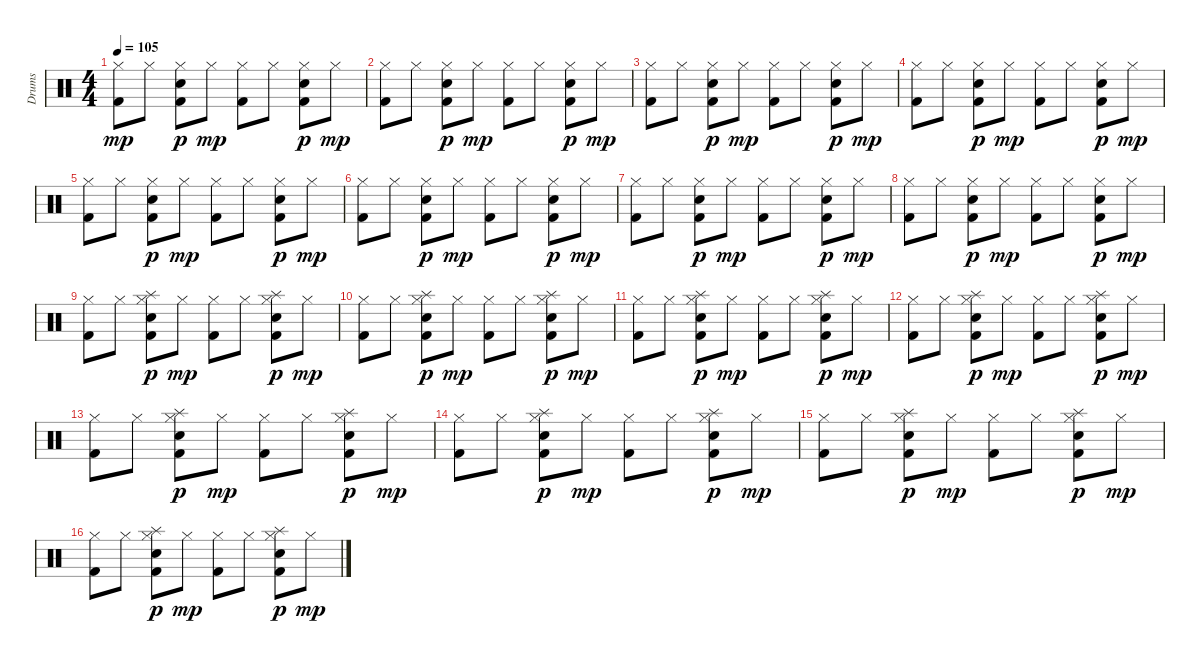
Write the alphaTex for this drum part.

\track ("Drums" "Drums") {instrument percussion}
\staff {score}
\articulation defaults
\ts (4 4)
\tempo 105
\clef neutral
\ks c
("Hi-Hat (closed)" "Kick (hit) 2").8{dy mp} "Hi-Hat (closed)".8 ("Hi-Hat (closed)" "Snare (hit) 2" "Kick (hit) 2").8{dy p} "Hi-Hat (closed)".8{dy mp} ("Hi-Hat (closed)" "Kick (hit) 2").8 "Hi-Hat (closed)".8 ("Hi-Hat (closed)" "Snare (hit) 2" "Kick (hit) 2").8{dy p} "Hi-Hat (closed)".8{dy mp} |
("Hi-Hat (closed)" "Kick (hit) 2").8 "Hi-Hat (closed)".8 ("Hi-Hat (closed)" "Snare (hit) 2" "Kick (hit) 2").8{dy p} "Hi-Hat (closed)".8{dy mp} ("Hi-Hat (closed)" "Kick (hit) 2").8 "Hi-Hat (closed)".8 ("Hi-Hat (closed)" "Snare (hit) 2" "Kick (hit) 2").8{dy p} "Hi-Hat (closed)".8{dy mp} |
("Hi-Hat (closed)" "Kick (hit) 2").8 "Hi-Hat (closed)".8 ("Hi-Hat (closed)" "Snare (hit) 2" "Kick (hit) 2").8{dy p} "Hi-Hat (closed)".8{dy mp} ("Hi-Hat (closed)" "Kick (hit) 2").8 "Hi-Hat (closed)".8 ("Hi-Hat (closed)" "Snare (hit) 2" "Kick (hit) 2").8{dy p} "Hi-Hat (closed)".8{dy mp} |
("Hi-Hat (closed)" "Kick (hit) 2").8 "Hi-Hat (closed)".8 ("Hi-Hat (closed)" "Snare (hit) 2" "Kick (hit) 2").8{dy p} "Hi-Hat (closed)".8{dy mp} ("Hi-Hat (closed)" "Kick (hit) 2").8 "Hi-Hat (closed)".8 ("Hi-Hat (closed)" "Snare (hit) 2" "Kick (hit) 2").8{dy p} "Hi-Hat (closed)".8{dy mp} |
("Hi-Hat (closed)" "Kick (hit) 2").8 "Hi-Hat (closed)".8 ("Hi-Hat (closed)" "Snare (hit) 2" "Kick (hit) 2").8{dy p} "Hi-Hat (closed)".8{dy mp} ("Hi-Hat (closed)" "Kick (hit) 2").8 "Hi-Hat (closed)".8 ("Hi-Hat (closed)" "Snare (hit) 2" "Kick (hit) 2").8{dy p} "Hi-Hat (closed)".8{dy mp} |
("Hi-Hat (closed)" "Kick (hit) 2").8 "Hi-Hat (closed)".8 ("Hi-Hat (closed)" "Snare (hit) 2" "Kick (hit) 2").8{dy p} "Hi-Hat (closed)".8{dy mp} ("Hi-Hat (closed)" "Kick (hit) 2").8 "Hi-Hat (closed)".8 ("Hi-Hat (closed)" "Snare (hit) 2" "Kick (hit) 2").8{dy p} "Hi-Hat (closed)".8{dy mp} |
("Hi-Hat (closed)" "Kick (hit) 2").8 "Hi-Hat (closed)".8 ("Hi-Hat (closed)" "Snare (hit) 2" "Kick (hit) 2").8{dy p} "Hi-Hat (closed)".8{dy mp} ("Hi-Hat (closed)" "Kick (hit) 2").8 "Hi-Hat (closed)".8 ("Hi-Hat (closed)" "Snare (hit) 2" "Kick (hit) 2").8{dy p} "Hi-Hat (closed)".8{dy mp} |
("Hi-Hat (closed)" "Kick (hit) 2").8 "Hi-Hat (closed)".8 ("Hi-Hat (closed)" "Snare (hit) 2" "Kick (hit) 2").8{dy p} "Hi-Hat (closed)".8{dy mp} ("Hi-Hat (closed)" "Kick (hit) 2").8 "Hi-Hat (closed)".8 ("Hi-Hat (closed)" "Snare (hit) 2" "Kick (hit) 2").8{dy p} "Hi-Hat (closed)".8{dy mp} |
("Hi-Hat (closed)" "Kick (hit) 2").8 "Hi-Hat (closed)".8 ("Splash (hit)" "Hi-Hat (closed)" "Snare (hit) 2" "Kick (hit) 2").8{dy p} "Hi-Hat (closed)".8{dy mp} ("Hi-Hat (closed)" "Kick (hit) 2").8 "Hi-Hat (closed)".8 ("Splash (hit)" "Hi-Hat (closed)" "Snare (hit) 2" "Kick (hit) 2").8{dy p} "Hi-Hat (closed)".8{dy mp} |
("Hi-Hat (closed)" "Kick (hit) 2").8 "Hi-Hat (closed)".8 ("Splash (hit)" "Hi-Hat (closed)" "Snare (hit) 2" "Kick (hit) 2").8{dy p} "Hi-Hat (closed)".8{dy mp} ("Hi-Hat (closed)" "Kick (hit) 2").8 "Hi-Hat (closed)".8 ("Splash (hit)" "Hi-Hat (closed)" "Snare (hit) 2" "Kick (hit) 2").8{dy p} "Hi-Hat (closed)".8{dy mp} |
("Hi-Hat (closed)" "Kick (hit) 2").8 "Hi-Hat (closed)".8 ("Splash (hit)" "Hi-Hat (closed)" "Snare (hit) 2" "Kick (hit) 2").8{dy p} "Hi-Hat (closed)".8{dy mp} ("Hi-Hat (closed)" "Kick (hit) 2").8 "Hi-Hat (closed)".8 ("Splash (hit)" "Hi-Hat (closed)" "Snare (hit) 2" "Kick (hit) 2").8{dy p} "Hi-Hat (closed)".8{dy mp} |
("Hi-Hat (closed)" "Kick (hit) 2").8 "Hi-Hat (closed)".8 ("Splash (hit)" "Hi-Hat (closed)" "Snare (hit) 2" "Kick (hit) 2").8{dy p} "Hi-Hat (closed)".8{dy mp} ("Hi-Hat (closed)" "Kick (hit) 2").8 "Hi-Hat (closed)".8 ("Splash (hit)" "Hi-Hat (closed)" "Snare (hit) 2" "Kick (hit) 2").8{dy p} "Hi-Hat (closed)".8{dy mp} |
("Hi-Hat (closed)" "Kick (hit) 2").8 "Hi-Hat (closed)".8 ("Splash (hit)" "Hi-Hat (closed)" "Snare (hit) 2" "Kick (hit) 2").8{dy p} "Hi-Hat (closed)".8{dy mp} ("Hi-Hat (closed)" "Kick (hit) 2").8 "Hi-Hat (closed)".8 ("Splash (hit)" "Hi-Hat (closed)" "Snare (hit) 2" "Kick (hit) 2").8{dy p} "Hi-Hat (closed)".8{dy mp} |
("Hi-Hat (closed)" "Kick (hit) 2").8 "Hi-Hat (closed)".8 ("Splash (hit)" "Hi-Hat (closed)" "Snare (hit) 2" "Kick (hit) 2").8{dy p} "Hi-Hat (closed)".8{dy mp} ("Hi-Hat (closed)" "Kick (hit) 2").8 "Hi-Hat (closed)".8 ("Splash (hit)" "Hi-Hat (closed)" "Snare (hit) 2" "Kick (hit) 2").8{dy p} "Hi-Hat (closed)".8{dy mp} |
("Hi-Hat (closed)" "Kick (hit) 2").8 "Hi-Hat (closed)".8 ("Splash (hit)" "Hi-Hat (closed)" "Snare (hit) 2" "Kick (hit) 2").8{dy p} "Hi-Hat (closed)".8{dy mp} ("Hi-Hat (closed)" "Kick (hit) 2").8 "Hi-Hat (closed)".8 ("Splash (hit)" "Hi-Hat (closed)" "Snare (hit) 2" "Kick (hit) 2").8{dy p} "Hi-Hat (closed)".8{dy mp} |
("Hi-Hat (closed)" "Kick (hit) 2").8 "Hi-Hat (closed)".8 ("Splash (hit)" "Hi-Hat (closed)" "Snare (hit) 2" "Kick (hit) 2").8{dy p} "Hi-Hat (closed)".8{dy mp} ("Hi-Hat (closed)" "Kick (hit) 2").8 "Hi-Hat (closed)".8 ("Splash (hit)" "Hi-Hat (closed)" "Snare (hit) 2" "Kick (hit) 2").8{dy p} "Hi-Hat (closed)".8{dy mp}
